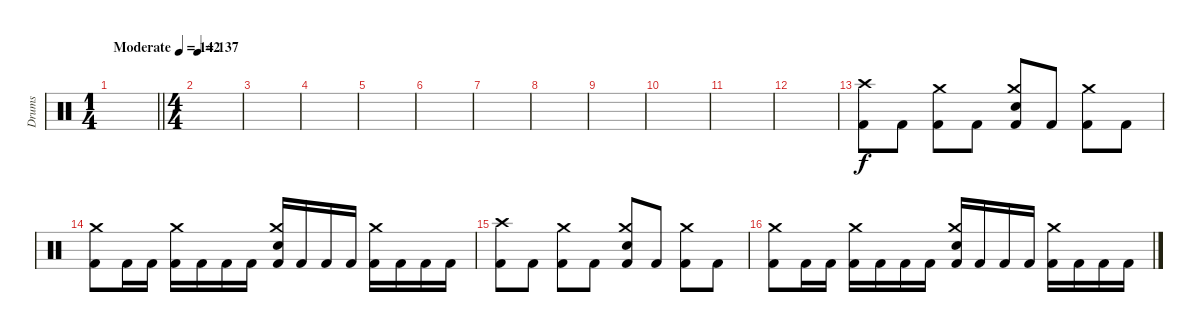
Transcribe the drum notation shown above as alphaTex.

\track ("Drums" "Drums") {instrument percussion}
\staff
\articulation defaults
\ts (1 4)
\tempo (142 "Moderate")
\clef neutral
\barLineRight lightlight
\ks c
|
\ts (4 4)
\tempo 137
|
|
|
|
|
|
|
|
|
|
|
("Crash high (hit)" "Kick (hit) 2").8 "Kick (hit) 2".8 ("Crash medium (hit)" "Kick (hit) 2").8 "Kick (hit) 2".8 ("Crash medium (hit)" "Electric Snare (hit)" "Kick (hit) 2").8 "Kick (hit) 2".8 ("Crash medium (hit)" "Kick (hit) 2").8 "Kick (hit) 2".8 |
("Crash medium (hit)" "Kick (hit) 2").8 "Kick (hit) 2".16 "Kick (hit) 2".16 ("Crash medium (hit)" "Kick (hit) 2").16 "Kick (hit) 2".16 "Kick (hit) 2".16 "Kick (hit) 2".16 ("Crash medium (hit)" "Electric Snare (hit)" "Kick (hit) 2").16 "Kick (hit) 2".16 "Kick (hit) 2".16 "Kick (hit) 2".16 ("Crash medium (hit)" "Kick (hit) 2").16 "Kick (hit) 2".16 "Kick (hit) 2".16 "Kick (hit) 2".16 |
("Crash high (hit)" "Kick (hit) 2").8 "Kick (hit) 2".8 ("Crash medium (hit)" "Kick (hit) 2").8 "Kick (hit) 2".8 ("Crash medium (hit)" "Electric Snare (hit)" "Kick (hit) 2").8 "Kick (hit) 2".8 ("Crash medium (hit)" "Kick (hit) 2").8 "Kick (hit) 2".8 |
("Crash medium (hit)" "Kick (hit) 2").8 "Kick (hit) 2".16 "Kick (hit) 2".16 ("Crash medium (hit)" "Kick (hit) 2").16 "Kick (hit) 2".16 "Kick (hit) 2".16 "Kick (hit) 2".16 ("Crash medium (hit)" "Electric Snare (hit)" "Kick (hit) 2").16 "Kick (hit) 2".16 "Kick (hit) 2".16 "Kick (hit) 2".16 ("Crash medium (hit)" "Kick (hit) 2").16 "Kick (hit) 2".16 "Kick (hit) 2".16 "Kick (hit) 2".16
